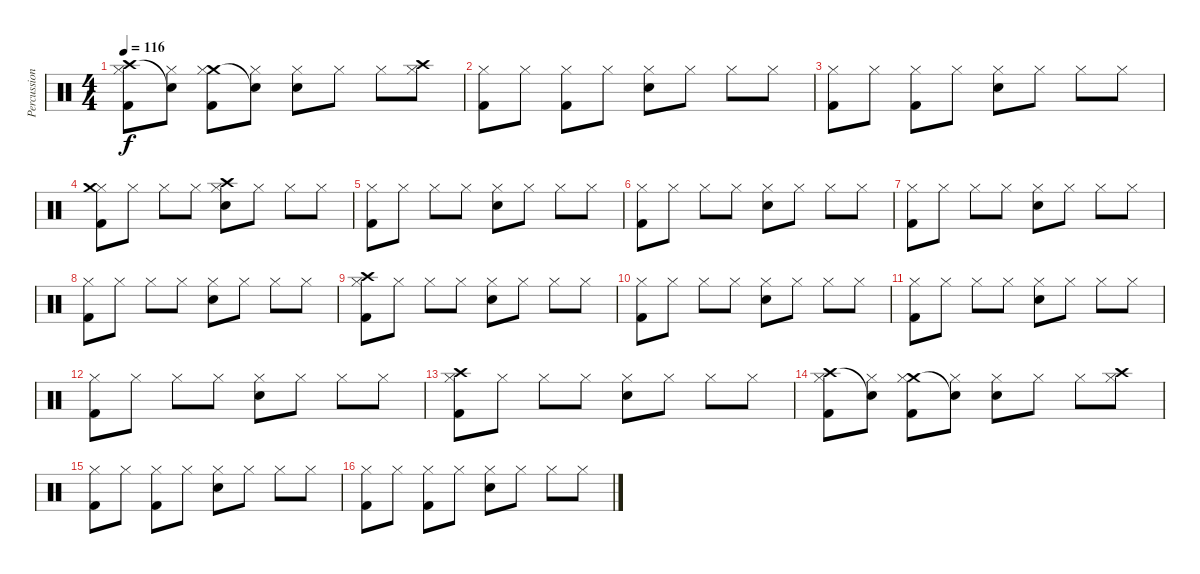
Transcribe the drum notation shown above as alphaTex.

\track ("Percussion" "Percussion") {instrument percussion}
\staff {score}
\articulation defaults
\ts (4 4)
\tempo 116
\clef neutral
\ks c
("Crash high (hit)" "Hi-Hat (closed)" "Kick (hit) 2").8{dy f} ("Snare (hit)"{t} "Hi-Hat (closed)").8 ("Crash medium (hit)" "Hi-Hat (closed)" "Kick (hit) 2").8 ("Snare (hit)"{t} "Hi-Hat (closed)").8 ("Hi-Hat (closed)" "Snare (hit) 2").8 "Hi-Hat (closed)".8 "Hi-Hat (closed)".8 ("Hi-Hat (closed)" "Crash high (hit)").8 |
("Hi-Hat (closed)" "Kick (hit) 2").8 "Hi-Hat (closed)".8 ("Hi-Hat (closed)" "Kick (hit) 2").8 "Hi-Hat (closed)".8 ("Hi-Hat (closed)" "Snare (hit) 2").8 "Hi-Hat (closed)".8 "Hi-Hat (closed)".8 "Hi-Hat (closed)".8 |
("Hi-Hat (closed)" "Kick (hit) 2").8 "Hi-Hat (closed)".8 ("Hi-Hat (closed)" "Kick (hit) 2").8 "Hi-Hat (closed)".8 ("Hi-Hat (closed)" "Snare (hit) 2").8 "Hi-Hat (closed)".8 "Hi-Hat (closed)".8 "Hi-Hat (closed)".8 |
("Hi-Hat (closed)" "Kick (hit) 2" "Crash medium (hit)").8 "Hi-Hat (closed)".8 "Hi-Hat (closed)".8 "Hi-Hat (closed)".8 ("Hi-Hat (closed)" "Snare (hit) 2" "Crash high (hit)").8 "Hi-Hat (closed)".8 "Hi-Hat (closed)".8 "Hi-Hat (closed)".8 |
("Hi-Hat (closed)" "Kick (hit) 2").8 "Hi-Hat (closed)".8 "Hi-Hat (closed)".8 "Hi-Hat (closed)".8 ("Hi-Hat (closed)" "Snare (hit) 2").8 "Hi-Hat (closed)".8 "Hi-Hat (closed)".8 "Hi-Hat (closed)".8 |
("Hi-Hat (closed)" "Kick (hit) 2").8 "Hi-Hat (closed)".8 "Hi-Hat (closed)".8 "Hi-Hat (closed)".8 ("Hi-Hat (closed)" "Snare (hit) 2").8 "Hi-Hat (closed)".8 "Hi-Hat (closed)".8 "Hi-Hat (closed)".8 |
("Hi-Hat (closed)" "Kick (hit) 2").8 "Hi-Hat (closed)".8 "Hi-Hat (closed)".8 "Hi-Hat (closed)".8 ("Hi-Hat (closed)" "Snare (hit) 2").8 "Hi-Hat (closed)".8 "Hi-Hat (closed)".8 "Hi-Hat (closed)".8 |
("Hi-Hat (closed)" "Kick (hit) 2").8 "Hi-Hat (closed)".8 "Hi-Hat (closed)".8 "Hi-Hat (closed)".8 ("Hi-Hat (closed)" "Snare (hit) 2").8 "Hi-Hat (closed)".8 "Hi-Hat (closed)".8 "Hi-Hat (closed)".8 |
("Hi-Hat (closed)" "Kick (hit) 2" "Crash high (hit)").8 "Hi-Hat (closed)".8 "Hi-Hat (closed)".8 "Hi-Hat (closed)".8 ("Hi-Hat (closed)" "Snare (hit) 2").8 "Hi-Hat (closed)".8 "Hi-Hat (closed)".8 "Hi-Hat (closed)".8 |
("Hi-Hat (closed)" "Kick (hit) 2").8 "Hi-Hat (closed)".8 "Hi-Hat (closed)".8 "Hi-Hat (closed)".8 ("Hi-Hat (closed)" "Snare (hit) 2").8 "Hi-Hat (closed)".8 "Hi-Hat (closed)".8 "Hi-Hat (closed)".8 |
("Hi-Hat (closed)" "Kick (hit) 2").8 "Hi-Hat (closed)".8 "Hi-Hat (closed)".8 "Hi-Hat (closed)".8 ("Hi-Hat (closed)" "Snare (hit) 2").8 "Hi-Hat (closed)".8 "Hi-Hat (closed)".8 "Hi-Hat (closed)".8 |
("Hi-Hat (closed)" "Kick (hit) 2").8 "Hi-Hat (closed)".8 "Hi-Hat (closed)".8 "Hi-Hat (closed)".8 ("Hi-Hat (closed)" "Snare (hit) 2").8 "Hi-Hat (closed)".8 "Hi-Hat (closed)".8 "Hi-Hat (closed)".8 |
("Hi-Hat (closed)" "Kick (hit) 2" "Crash high (hit)").8 "Hi-Hat (closed)".8 "Hi-Hat (closed)".8 "Hi-Hat (closed)".8 ("Hi-Hat (closed)" "Snare (hit) 2").8 "Hi-Hat (closed)".8 "Hi-Hat (closed)".8 "Hi-Hat (closed)".8 |
("Crash high (hit)" "Hi-Hat (closed)" "Kick (hit) 2").8 ("Snare (hit)"{t} "Hi-Hat (closed)").8 ("Crash medium (hit)" "Hi-Hat (closed)" "Kick (hit) 2").8 ("Snare (hit)"{t} "Hi-Hat (closed)").8 ("Hi-Hat (closed)" "Snare (hit) 2").8 "Hi-Hat (closed)".8 "Hi-Hat (closed)".8 ("Hi-Hat (closed)" "Crash high (hit)").8 |
("Hi-Hat (closed)" "Kick (hit) 2").8 "Hi-Hat (closed)".8 ("Hi-Hat (closed)" "Kick (hit) 2").8 "Hi-Hat (closed)".8 ("Hi-Hat (closed)" "Snare (hit) 2").8 "Hi-Hat (closed)".8 "Hi-Hat (closed)".8 "Hi-Hat (closed)".8 |
("Hi-Hat (closed)" "Kick (hit) 2").8 "Hi-Hat (closed)".8 ("Hi-Hat (closed)" "Kick (hit) 2").8 "Hi-Hat (closed)".8 ("Hi-Hat (closed)" "Snare (hit) 2").8 "Hi-Hat (closed)".8 "Hi-Hat (closed)".8 "Hi-Hat (closed)".8
